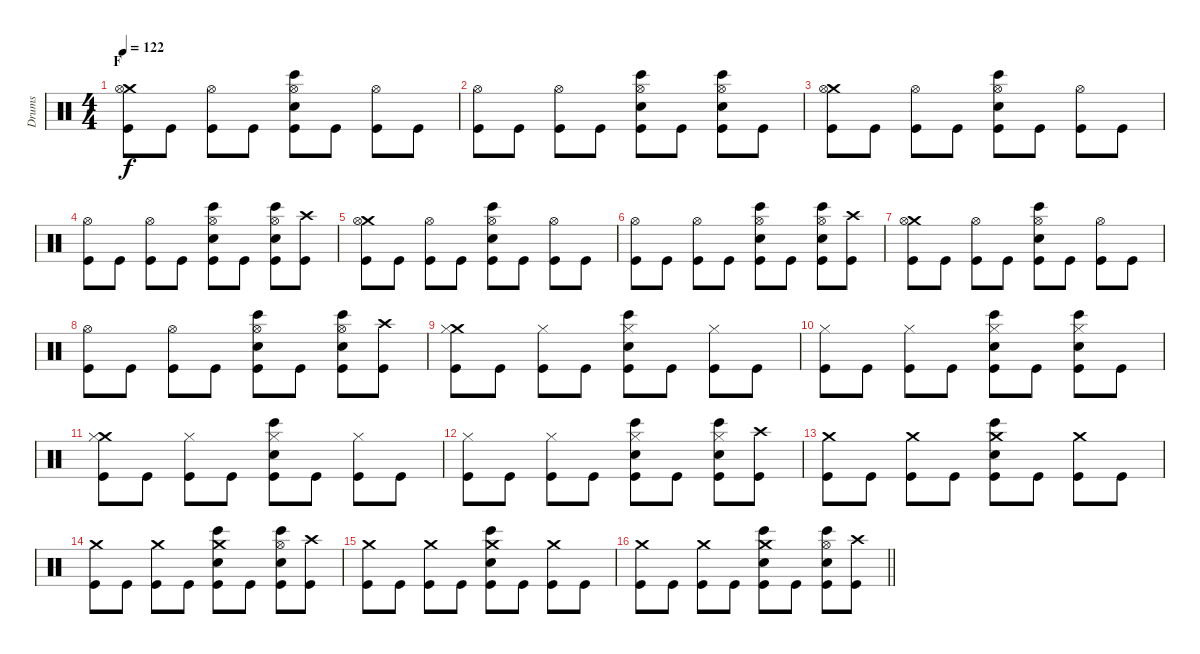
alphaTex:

\track ("Drums" "Drums") {instrument percussion}
\staff {score}
\articulation defaults
\ts (4 4)
\section ("" "F")
\tempo 122
\clef neutral
\ks c
("Crash medium (hit)" "Hi-Hat (open)" "Kick (hit)").8{dy f} "Kick (hit)".8 ("Hi-Hat (open)" "Kick (hit)").8 "Kick (hit)".8 ("Hi-Hat (open)" "Snare (hit) 2" "Bongo High (hit)" "Kick (hit)").8 "Kick (hit)".8 ("Hi-Hat (open)" "Kick (hit)").8 "Kick (hit)".8 |
("Hi-Hat (open)" "Kick (hit)").8 "Kick (hit)".8 ("Hi-Hat (open)" "Kick (hit)").8 "Kick (hit)".8 ("Hi-Hat (open)" "Snare (hit) 2" "Bongo High (hit)" "Kick (hit)").8 "Kick (hit)".8 ("Hi-Hat (open)" "Snare (hit) 2" "Bongo High (hit)" "Kick (hit)").8 "Kick (hit)".8 |
("Crash medium (hit)" "Hi-Hat (open)" "Kick (hit)").8 "Kick (hit)".8 ("Hi-Hat (open)" "Kick (hit)").8 "Kick (hit)".8 ("Hi-Hat (open)" "Snare (hit) 2" "Bongo High (hit)" "Kick (hit)").8 "Kick (hit)".8 ("Hi-Hat (open)" "Kick (hit)").8 "Kick (hit)".8 |
("Hi-Hat (open)" "Kick (hit)").8 "Kick (hit)".8 ("Hi-Hat (open)" "Kick (hit)").8 "Kick (hit)".8 ("Hi-Hat (open)" "Snare (hit) 2" "Bongo High (hit)" "Kick (hit)").8 "Kick (hit)".8 ("Hi-Hat (open)" "Snare (hit) 2" "Bongo High (hit)" "Kick (hit)").8 ("Crash high (hit)" "Kick (hit)").8 |
("Crash medium (hit)" "Hi-Hat (open)" "Kick (hit)").8 "Kick (hit)".8 ("Hi-Hat (open)" "Kick (hit)").8 "Kick (hit)".8 ("Hi-Hat (open)" "Snare (hit) 2" "Bongo High (hit)" "Kick (hit)").8 "Kick (hit)".8 ("Hi-Hat (open)" "Kick (hit)").8 "Kick (hit)".8 |
("Hi-Hat (open)" "Kick (hit)").8 "Kick (hit)".8 ("Hi-Hat (open)" "Kick (hit)").8 "Kick (hit)".8 ("Hi-Hat (open)" "Snare (hit) 2" "Bongo High (hit)" "Kick (hit)").8 "Kick (hit)".8 ("Hi-Hat (open)" "Snare (hit) 2" "Bongo High (hit)" "Kick (hit)").8 ("Crash high (hit)" "Kick (hit)").8 |
("Crash medium (hit)" "Hi-Hat (open)" "Kick (hit)").8 "Kick (hit)".8 ("Hi-Hat (open)" "Kick (hit)").8 "Kick (hit)".8 ("Hi-Hat (open)" "Snare (hit) 2" "Bongo High (hit)" "Kick (hit)").8 "Kick (hit)".8 ("Hi-Hat (open)" "Kick (hit)").8 "Kick (hit)".8 |
("Hi-Hat (open)" "Kick (hit)").8 "Kick (hit)".8 ("Hi-Hat (open)" "Kick (hit)").8 "Kick (hit)".8 ("Hi-Hat (open)" "Snare (hit) 2" "Bongo High (hit)" "Kick (hit)").8 "Kick (hit)".8 ("Hi-Hat (open)" "Snare (hit) 2" "Bongo High (hit)" "Kick (hit)").8 ("Crash high (hit)" "Kick (hit)").8 |
("Crash medium (hit)" "Hi-Hat (closed)" "Kick (hit)").8 "Kick (hit)".8 ("Hi-Hat (closed)" "Kick (hit)").8 "Kick (hit)".8 ("Hi-Hat (closed)" "Snare (hit) 2" "Bongo High (hit)" "Kick (hit)").8 "Kick (hit)".8 ("Hi-Hat (closed)" "Kick (hit)").8 "Kick (hit)".8 |
("Hi-Hat (closed)" "Kick (hit)").8 "Kick (hit)".8 ("Hi-Hat (closed)" "Kick (hit)").8 "Kick (hit)".8 ("Hi-Hat (closed)" "Snare (hit) 2" "Bongo High (hit)" "Kick (hit)").8 "Kick (hit)".8 ("Hi-Hat (closed)" "Snare (hit) 2" "Bongo High (hit)" "Kick (hit)").8 "Kick (hit)".8 |
("Crash medium (hit)" "Hi-Hat (closed)" "Kick (hit)").8 "Kick (hit)".8 ("Hi-Hat (closed)" "Kick (hit)").8 "Kick (hit)".8 ("Hi-Hat (closed)" "Snare (hit) 2" "Bongo High (hit)" "Kick (hit)").8 "Kick (hit)".8 ("Hi-Hat (closed)" "Kick (hit)").8 "Kick (hit)".8 |
("Hi-Hat (closed)" "Kick (hit)").8 "Kick (hit)".8 ("Hi-Hat (closed)" "Kick (hit)").8 "Kick (hit)".8 ("Hi-Hat (closed)" "Snare (hit) 2" "Bongo High (hit)" "Kick (hit)").8 "Kick (hit)".8 ("Hi-Hat (closed)" "Snare (hit) 2" "Bongo High (hit)" "Kick (hit)").8 ("Crash high (hit)" "Kick (hit)").8 |
("Crash medium (hit)" "Kick (hit)").8 "Kick (hit)".8 ("Crash medium (hit)" "Kick (hit)").8 "Kick (hit)".8 ("Crash medium (hit)" "Snare (hit) 2" "Bongo High (hit)" "Kick (hit)").8 "Kick (hit)".8 ("Crash medium (hit)" "Kick (hit)").8 "Kick (hit)".8 |
("Crash medium (hit)" "Kick (hit)").8 "Kick (hit)".8 ("Crash medium (hit)" "Kick (hit)").8 "Kick (hit)".8 ("Crash medium (hit)" "Snare (hit) 2" "Bongo High (hit)" "Kick (hit)").8 "Kick (hit)".8 ("Hi-Hat (open)" "Snare (hit) 2" "Bongo High (hit)" "Kick (hit)").8 ("Crash high (hit)" "Kick (hit)").8 |
("Crash medium (hit)" "Kick (hit)").8 "Kick (hit)".8 ("Crash medium (hit)" "Kick (hit)").8 "Kick (hit)".8 ("Crash medium (hit)" "Snare (hit) 2" "Bongo High (hit)" "Kick (hit)").8 "Kick (hit)".8 ("Crash medium (hit)" "Kick (hit)").8 "Kick (hit)".8 |
\barLineRight lightlight
("Crash medium (hit)" "Kick (hit)").8 "Kick (hit)".8 ("Crash medium (hit)" "Kick (hit)").8 "Kick (hit)".8 ("Crash medium (hit)" "Snare (hit) 2" "Bongo High (hit)" "Kick (hit)").8 "Kick (hit)".8 ("Hi-Hat (open)" "Snare (hit) 2" "Bongo High (hit)" "Kick (hit)").8 ("Crash high (hit)" "Kick (hit)").8
